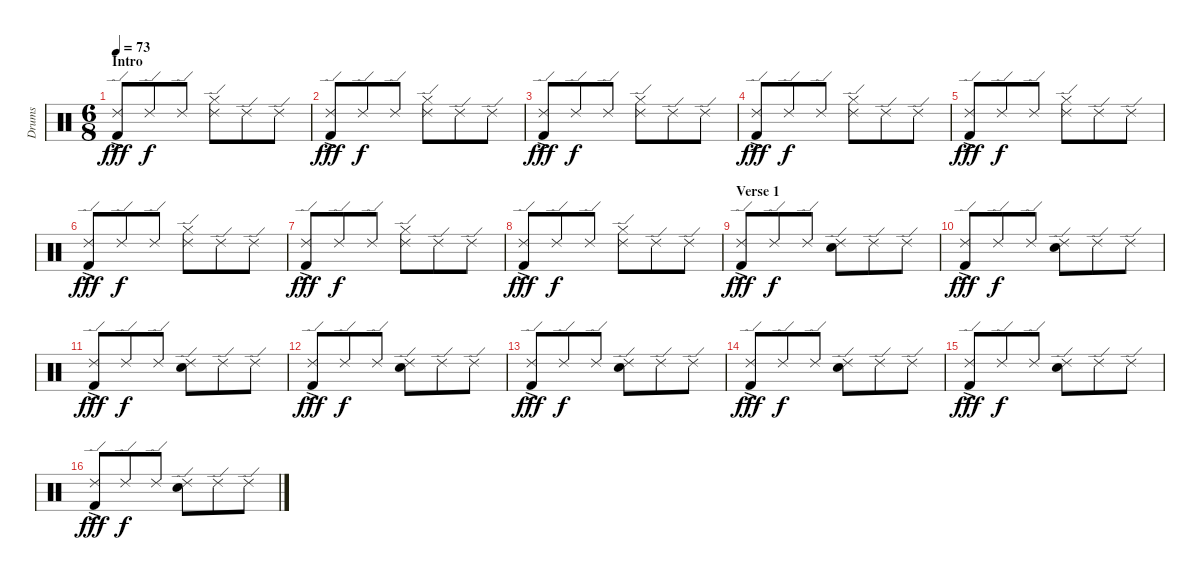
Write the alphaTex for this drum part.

\track ("Drums" "Drums") {instrument percussion}
\staff {score}
\articulation defaults
\ts (6 8)
\section ("" "Intro")
\tempo 73
\clef neutral
\ks c
("Ride (edge) 2" "Kick (hit) 2"{ac}).8{dy fff} "Ride (edge) 2".8{dy f} "Ride (edge) 2".8 ("Ride (edge) 2" "Hi-Hat (closed)").8 "Ride (edge) 2".8 "Ride (edge) 2".8 |
("Ride (edge) 2" "Kick (hit) 2"{ac}).8{dy fff} "Ride (edge) 2".8{dy f} "Ride (edge) 2".8 ("Ride (edge) 2" "Hi-Hat (closed)").8 "Ride (edge) 2".8 "Ride (edge) 2".8 |
("Ride (edge) 2" "Kick (hit) 2"{ac}).8{dy fff} "Ride (edge) 2".8{dy f} "Ride (edge) 2".8 ("Ride (edge) 2" "Hi-Hat (closed)").8 "Ride (edge) 2".8 "Ride (edge) 2".8 |
("Ride (edge) 2" "Kick (hit) 2"{ac}).8{dy fff} "Ride (edge) 2".8{dy f} "Ride (edge) 2".8 ("Ride (edge) 2" "Hi-Hat (closed)").8 "Ride (edge) 2".8 "Ride (edge) 2".8 |
("Ride (edge) 2" "Kick (hit) 2"{ac}).8{dy fff} "Ride (edge) 2".8{dy f} "Ride (edge) 2".8 ("Ride (edge) 2" "Hi-Hat (closed)").8 "Ride (edge) 2".8 "Ride (edge) 2".8 |
("Ride (edge) 2" "Kick (hit) 2"{ac}).8{dy fff} "Ride (edge) 2".8{dy f} "Ride (edge) 2".8 ("Ride (edge) 2" "Hi-Hat (closed)").8 "Ride (edge) 2".8 "Ride (edge) 2".8 |
("Ride (edge) 2" "Kick (hit) 2"{ac}).8{dy fff} "Ride (edge) 2".8{dy f} "Ride (edge) 2".8 ("Ride (edge) 2" "Hi-Hat (closed)").8 "Ride (edge) 2".8 "Ride (edge) 2".8 |
("Ride (edge) 2" "Kick (hit) 2"{ac}).8{dy fff} "Ride (edge) 2".8{dy f} "Ride (edge) 2".8 ("Ride (edge) 2" "Hi-Hat (closed)").8 "Ride (edge) 2".8 "Ride (edge) 2".8 |
\section ("" "Verse 1")
("Ride (edge) 2" "Kick (hit) 2"{ac}).8{dy fff} "Ride (edge) 2".8{dy f} "Ride (edge) 2".8 ("Ride (edge) 2" "Electric Snare (hit)").8 "Ride (edge) 2".8 "Ride (edge) 2".8 |
("Ride (edge) 2" "Kick (hit) 2"{ac}).8{dy fff} "Ride (edge) 2".8{dy f} "Ride (edge) 2".8 ("Ride (edge) 2" "Electric Snare (hit)").8 "Ride (edge) 2".8 "Ride (edge) 2".8 |
("Ride (edge) 2" "Kick (hit) 2"{ac}).8{dy fff} "Ride (edge) 2".8{dy f} "Ride (edge) 2".8 ("Ride (edge) 2" "Electric Snare (hit)").8 "Ride (edge) 2".8 "Ride (edge) 2".8 |
("Ride (edge) 2" "Kick (hit) 2"{ac}).8{dy fff} "Ride (edge) 2".8{dy f} "Ride (edge) 2".8 ("Ride (edge) 2" "Electric Snare (hit)").8 "Ride (edge) 2".8 "Ride (edge) 2".8 |
("Ride (edge) 2" "Kick (hit) 2"{ac}).8{dy fff} "Ride (edge) 2".8{dy f} "Ride (edge) 2".8 ("Ride (edge) 2" "Electric Snare (hit)").8 "Ride (edge) 2".8 "Ride (edge) 2".8 |
("Ride (edge) 2" "Kick (hit) 2"{ac}).8{dy fff} "Ride (edge) 2".8{dy f} "Ride (edge) 2".8 ("Ride (edge) 2" "Electric Snare (hit)").8 "Ride (edge) 2".8 "Ride (edge) 2".8 |
("Ride (edge) 2" "Kick (hit) 2"{ac}).8{dy fff} "Ride (edge) 2".8{dy f} "Ride (edge) 2".8 ("Ride (edge) 2" "Electric Snare (hit)").8 "Ride (edge) 2".8 "Ride (edge) 2".8 |
("Ride (edge) 2" "Kick (hit) 2"{ac}).8{dy fff} "Ride (edge) 2".8{dy f} "Ride (edge) 2".8 ("Ride (edge) 2" "Electric Snare (hit)").8 "Ride (edge) 2".8 "Ride (edge) 2".8
